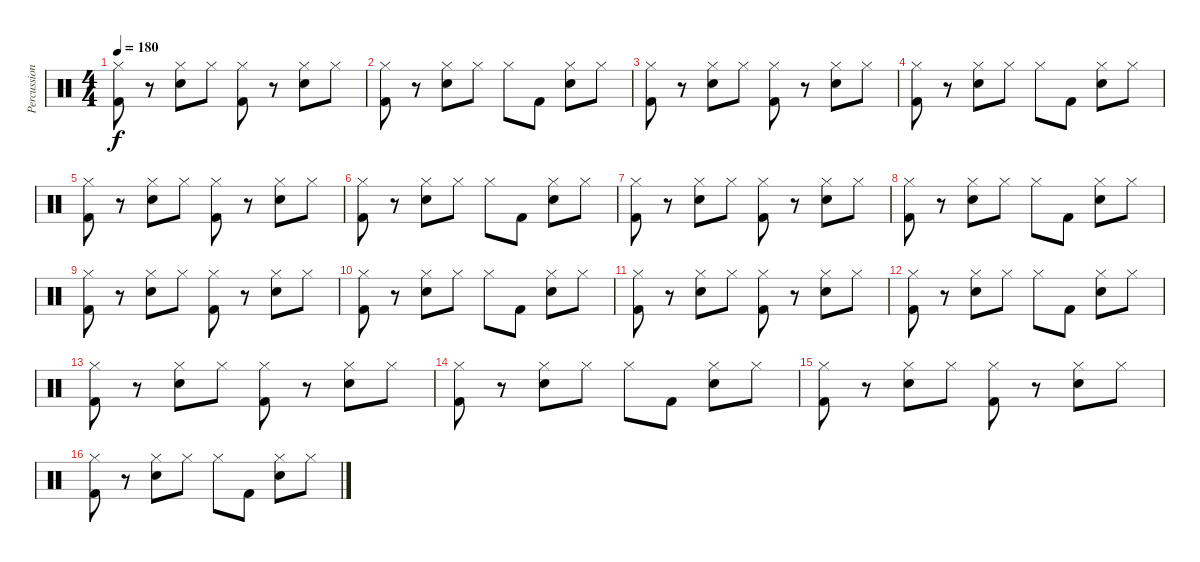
\track ("Percussion" "Percussion") {instrument percussion}
\staff {score}
\articulation defaults
\ts (4 4)
\tempo 180
\clef neutral
\ks c
("Hi-Hat (closed)" "Kick (hit) 2").8{dy f} r.8 ("Hi-Hat (closed)" "Electric Snare (hit)").8 "Hi-Hat (closed)".8 ("Hi-Hat (closed)" "Kick (hit) 2").8 r.8 ("Hi-Hat (closed)" "Electric Snare (hit)").8 "Hi-Hat (closed)".8 |
("Hi-Hat (closed)" "Kick (hit) 2").8 r.8 ("Hi-Hat (closed)" "Electric Snare (hit)").8 "Hi-Hat (closed)".8 "Hi-Hat (closed)".8 "Kick (hit) 2".8 ("Hi-Hat (closed)" "Electric Snare (hit)").8 "Hi-Hat (closed)".8 |
("Hi-Hat (closed)" "Kick (hit) 2").8 r.8 ("Hi-Hat (closed)" "Electric Snare (hit)").8 "Hi-Hat (closed)".8 ("Hi-Hat (closed)" "Kick (hit) 2").8 r.8 ("Hi-Hat (closed)" "Electric Snare (hit)").8 "Hi-Hat (closed)".8 |
("Hi-Hat (closed)" "Kick (hit) 2").8 r.8 ("Hi-Hat (closed)" "Electric Snare (hit)").8 "Hi-Hat (closed)".8 "Hi-Hat (closed)".8 "Kick (hit) 2".8 ("Hi-Hat (closed)" "Electric Snare (hit)").8 "Hi-Hat (closed)".8 |
("Hi-Hat (closed)" "Kick (hit) 2").8 r.8 ("Hi-Hat (closed)" "Electric Snare (hit)").8 "Hi-Hat (closed)".8 ("Hi-Hat (closed)" "Kick (hit) 2").8 r.8 ("Hi-Hat (closed)" "Electric Snare (hit)").8 "Hi-Hat (closed)".8 |
("Hi-Hat (closed)" "Kick (hit) 2").8 r.8 ("Hi-Hat (closed)" "Electric Snare (hit)").8 "Hi-Hat (closed)".8 "Hi-Hat (closed)".8 "Kick (hit) 2".8 ("Hi-Hat (closed)" "Electric Snare (hit)").8 "Hi-Hat (closed)".8 |
("Hi-Hat (closed)" "Kick (hit) 2").8 r.8 ("Hi-Hat (closed)" "Electric Snare (hit)").8 "Hi-Hat (closed)".8 ("Hi-Hat (closed)" "Kick (hit) 2").8 r.8 ("Hi-Hat (closed)" "Electric Snare (hit)").8 "Hi-Hat (closed)".8 |
("Hi-Hat (closed)" "Kick (hit) 2").8 r.8 ("Hi-Hat (closed)" "Electric Snare (hit)").8 "Hi-Hat (closed)".8 "Hi-Hat (closed)".8 "Kick (hit) 2".8 ("Hi-Hat (closed)" "Electric Snare (hit)").8 "Hi-Hat (closed)".8 |
("Hi-Hat (closed)" "Kick (hit) 2").8 r.8 ("Hi-Hat (closed)" "Electric Snare (hit)").8 "Hi-Hat (closed)".8 ("Hi-Hat (closed)" "Kick (hit) 2").8 r.8 ("Hi-Hat (closed)" "Electric Snare (hit)").8 "Hi-Hat (closed)".8 |
("Hi-Hat (closed)" "Kick (hit) 2").8 r.8 ("Hi-Hat (closed)" "Electric Snare (hit)").8 "Hi-Hat (closed)".8 "Hi-Hat (closed)".8 "Kick (hit) 2".8 ("Hi-Hat (closed)" "Electric Snare (hit)").8 "Hi-Hat (closed)".8 |
("Hi-Hat (closed)" "Kick (hit) 2").8 r.8 ("Hi-Hat (closed)" "Electric Snare (hit)").8 "Hi-Hat (closed)".8 ("Hi-Hat (closed)" "Kick (hit) 2").8 r.8 ("Hi-Hat (closed)" "Electric Snare (hit)").8 "Hi-Hat (closed)".8 |
("Hi-Hat (closed)" "Kick (hit) 2").8 r.8 ("Hi-Hat (closed)" "Electric Snare (hit)").8 "Hi-Hat (closed)".8 "Hi-Hat (closed)".8 "Kick (hit) 2".8 ("Hi-Hat (closed)" "Electric Snare (hit)").8 "Hi-Hat (closed)".8 |
("Hi-Hat (closed)" "Kick (hit) 2").8 r.8 ("Hi-Hat (closed)" "Electric Snare (hit)").8 "Hi-Hat (closed)".8 ("Hi-Hat (closed)" "Kick (hit) 2").8 r.8 ("Hi-Hat (closed)" "Electric Snare (hit)").8 "Hi-Hat (closed)".8 |
("Hi-Hat (closed)" "Kick (hit) 2").8 r.8 ("Hi-Hat (closed)" "Electric Snare (hit)").8 "Hi-Hat (closed)".8 "Hi-Hat (closed)".8 "Kick (hit) 2".8 ("Hi-Hat (closed)" "Electric Snare (hit)").8 "Hi-Hat (closed)".8 |
("Hi-Hat (closed)" "Kick (hit) 2").8 r.8 ("Hi-Hat (closed)" "Electric Snare (hit)").8 "Hi-Hat (closed)".8 ("Hi-Hat (closed)" "Kick (hit) 2").8 r.8 ("Hi-Hat (closed)" "Electric Snare (hit)").8 "Hi-Hat (closed)".8 |
("Hi-Hat (closed)" "Kick (hit) 2").8 r.8 ("Hi-Hat (closed)" "Electric Snare (hit)").8 "Hi-Hat (closed)".8 "Hi-Hat (closed)".8 "Kick (hit) 2".8 ("Hi-Hat (closed)" "Electric Snare (hit)").8 "Hi-Hat (closed)".8
